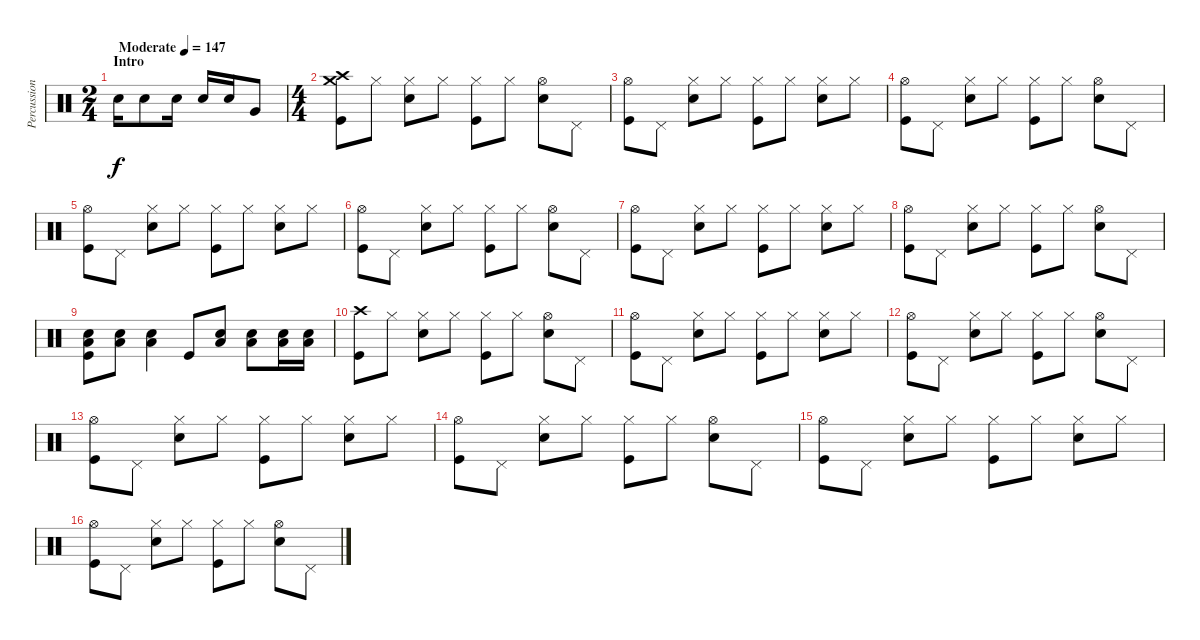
\track ("Percussion" "Percussion") {instrument percussion}
\staff {score}
\articulation defaults
\ts (2 4)
\section ("" "Intro")
\tempo (147 "Moderate")
\clef neutral
\ks c "Electric Snare (hit)".16{dy f} "Electric Snare (hit)".8 "Electric Snare (hit)".16 "Electric Snare (hit)".16 "Electric Snare (hit)".16 "Very Low Tom (hit)".8
|
\ts (4 4)
("Crash high (hit)" "Crash medium (hit)" "Kick (hit)").8 "Hi-Hat (closed)".8 ("Hi-Hat (closed)" "Electric Snare (hit)").8 "Hi-Hat (closed)".8 ("Hi-Hat (closed)" "Kick (hit)").8 "Hi-Hat (closed)".8 ("Hi-Hat (open)" "Electric Snare (hit)").8 "Pedal Hi-Hat (hit)".8 |
("Hi-Hat (open)" "Kick (hit)").8 "Pedal Hi-Hat (hit)".8 ("Hi-Hat (closed)" "Electric Snare (hit)").8 "Hi-Hat (closed)".8 ("Hi-Hat (closed)" "Kick (hit)").8 "Hi-Hat (closed)".8 ("Hi-Hat (closed)" "Electric Snare (hit)").8 "Hi-Hat (closed)".8 |
("Hi-Hat (open)" "Kick (hit)").8 "Pedal Hi-Hat (hit)".8 ("Hi-Hat (closed)" "Electric Snare (hit)").8 "Hi-Hat (closed)".8 ("Hi-Hat (closed)" "Kick (hit)").8 "Hi-Hat (closed)".8 ("Hi-Hat (open)" "Electric Snare (hit)").8 "Pedal Hi-Hat (hit)".8 |
("Hi-Hat (open)" "Kick (hit)").8 "Pedal Hi-Hat (hit)".8 ("Hi-Hat (closed)" "Electric Snare (hit)").8 "Hi-Hat (closed)".8 ("Hi-Hat (closed)" "Kick (hit)").8 "Hi-Hat (closed)".8 ("Hi-Hat (closed)" "Electric Snare (hit)").8 "Hi-Hat (closed)".8 |
("Hi-Hat (open)" "Kick (hit)").8 "Pedal Hi-Hat (hit)".8 ("Hi-Hat (closed)" "Electric Snare (hit)").8 "Hi-Hat (closed)".8 ("Hi-Hat (closed)" "Kick (hit)").8 "Hi-Hat (closed)".8 ("Hi-Hat (open)" "Electric Snare (hit)").8 "Pedal Hi-Hat (hit)".8 |
("Hi-Hat (open)" "Kick (hit)").8 "Pedal Hi-Hat (hit)".8 ("Hi-Hat (closed)" "Electric Snare (hit)").8 "Hi-Hat (closed)".8 ("Hi-Hat (closed)" "Kick (hit)").8 "Hi-Hat (closed)".8 ("Hi-Hat (closed)" "Electric Snare (hit)").8 "Hi-Hat (closed)".8 |
("Hi-Hat (open)" "Kick (hit)").8 "Pedal Hi-Hat (hit)".8 ("Hi-Hat (closed)" "Electric Snare (hit)").8 "Hi-Hat (closed)".8 ("Hi-Hat (closed)" "Kick (hit)").8 "Hi-Hat (closed)".8 ("Hi-Hat (open)" "Electric Snare (hit)").8 "Pedal Hi-Hat (hit)".8 |
("Electric Snare (hit)" "Low Floor Tom (hit)" "Kick (hit)").8 ("Electric Snare (hit)" "Low Floor Tom (hit)").8 ("Electric Snare (hit)" "Low Floor Tom (hit)").4 "Kick (hit)".8 ("Electric Snare (hit)" "Low Floor Tom (hit)").8 ("Electric Snare (hit)" "Low Floor Tom (hit)").8 ("Electric Snare (hit)" "Low Floor Tom (hit)").16 ("Electric Snare (hit)" "Low Floor Tom (hit)").16 |
("Crash high (hit)" "Kick (hit)").8 "Hi-Hat (closed)".8 ("Hi-Hat (closed)" "Electric Snare (hit)").8 "Hi-Hat (closed)".8 ("Hi-Hat (closed)" "Kick (hit)").8 "Hi-Hat (closed)".8 ("Hi-Hat (open)" "Electric Snare (hit)").8 "Pedal Hi-Hat (hit)".8 |
("Hi-Hat (open)" "Kick (hit)").8 "Pedal Hi-Hat (hit)".8 ("Hi-Hat (closed)" "Electric Snare (hit)").8 "Hi-Hat (closed)".8 ("Hi-Hat (closed)" "Kick (hit)").8 "Hi-Hat (closed)".8 ("Hi-Hat (closed)" "Electric Snare (hit)").8 "Hi-Hat (closed)".8 |
("Hi-Hat (open)" "Kick (hit)").8 "Pedal Hi-Hat (hit)".8 ("Hi-Hat (closed)" "Electric Snare (hit)").8 "Hi-Hat (closed)".8 ("Hi-Hat (closed)" "Kick (hit)").8 "Hi-Hat (closed)".8 ("Hi-Hat (open)" "Electric Snare (hit)").8 "Pedal Hi-Hat (hit)".8 |
("Hi-Hat (open)" "Kick (hit)").8 "Pedal Hi-Hat (hit)".8 ("Hi-Hat (closed)" "Electric Snare (hit)").8 "Hi-Hat (closed)".8 ("Hi-Hat (closed)" "Kick (hit)").8 "Hi-Hat (closed)".8 ("Hi-Hat (closed)" "Electric Snare (hit)").8 "Hi-Hat (closed)".8 |
("Hi-Hat (open)" "Kick (hit)").8 "Pedal Hi-Hat (hit)".8 ("Hi-Hat (closed)" "Electric Snare (hit)").8 "Hi-Hat (closed)".8 ("Hi-Hat (closed)" "Kick (hit)").8 "Hi-Hat (closed)".8 ("Hi-Hat (open)" "Electric Snare (hit)").8 "Pedal Hi-Hat (hit)".8 |
("Hi-Hat (open)" "Kick (hit)").8 "Pedal Hi-Hat (hit)".8 ("Hi-Hat (closed)" "Electric Snare (hit)").8 "Hi-Hat (closed)".8 ("Hi-Hat (closed)" "Kick (hit)").8 "Hi-Hat (closed)".8 ("Hi-Hat (closed)" "Electric Snare (hit)").8 "Hi-Hat (closed)".8 |
("Hi-Hat (open)" "Kick (hit)").8 "Pedal Hi-Hat (hit)".8 ("Hi-Hat (closed)" "Electric Snare (hit)").8 "Hi-Hat (closed)".8 ("Hi-Hat (closed)" "Kick (hit)").8 "Hi-Hat (closed)".8 ("Hi-Hat (open)" "Electric Snare (hit)").8 "Pedal Hi-Hat (hit)".8
